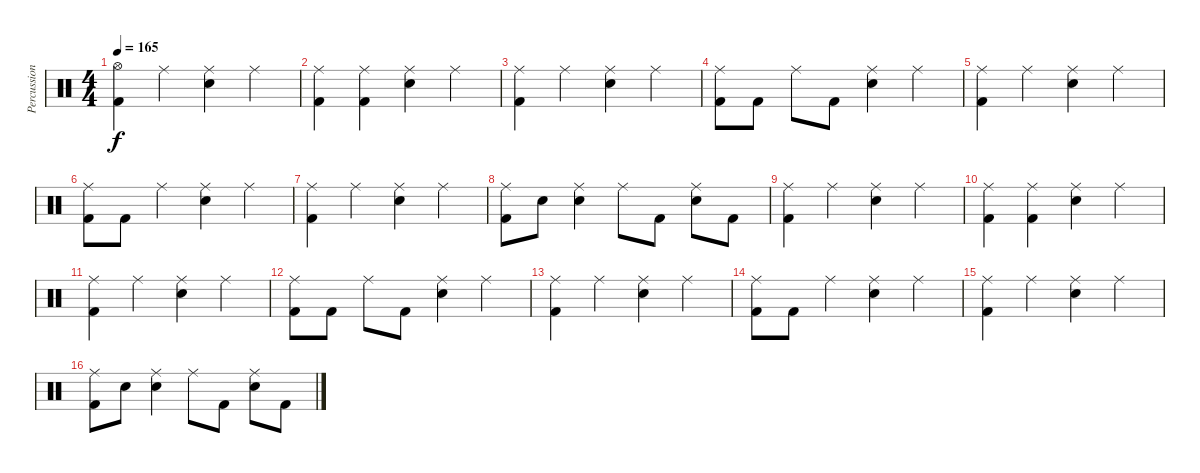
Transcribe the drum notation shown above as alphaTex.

\track ("Percussion" "Percussion") {instrument percussion}
\staff {score}
\articulation defaults
\ts (4 4)
\tempo 165
\clef neutral
\ks c
("Hi-Hat (open)" "Kick (hit) 2").4{dy f} "Ride (middle)".4 ("Ride (middle)" "Electric Snare (hit)").4 "Ride (middle)".4 |
("Ride (middle)" "Kick (hit) 2").4 ("Ride (middle)" "Kick (hit) 2").4 ("Ride (middle)" "Electric Snare (hit)").4 "Ride (middle)".4 |
("Ride (middle)" "Kick (hit) 2").4 "Ride (middle)".4 ("Ride (middle)" "Electric Snare (hit)").4 "Ride (middle)".4 |
("Ride (middle)" "Kick (hit) 2").8 "Kick (hit) 2".8 "Ride (middle)".8 "Kick (hit) 2".8 ("Ride (middle)" "Electric Snare (hit)").4 "Ride (middle)".4 |
("Ride (middle)" "Kick (hit) 2").4 "Ride (middle)".4 ("Ride (middle)" "Electric Snare (hit)").4 "Ride (middle)".4 |
("Ride (middle)" "Kick (hit) 2").8 "Kick (hit) 2".8 "Ride (middle)".4 ("Ride (middle)" "Electric Snare (hit)").4 "Ride (middle)".4 |
("Ride (middle)" "Kick (hit) 2").4 "Ride (middle)".4 ("Ride (middle)" "Electric Snare (hit)").4 "Ride (middle)".4 |
("Ride (middle)" "Kick (hit) 2").8 "Electric Snare (hit)".8 ("Ride (middle)" "Electric Snare (hit)").4 "Ride (middle)".8 "Kick (hit) 2".8 ("Ride (middle)" "Electric Snare (hit)").8 "Kick (hit) 2".8 |
("Ride (middle)" "Kick (hit) 2").4 "Ride (middle)".4 ("Ride (middle)" "Electric Snare (hit)").4 "Ride (middle)".4 |
("Ride (middle)" "Kick (hit) 2").4 ("Ride (middle)" "Kick (hit) 2").4 ("Ride (middle)" "Electric Snare (hit)").4 "Ride (middle)".4 |
("Ride (middle)" "Kick (hit) 2").4 "Ride (middle)".4 ("Ride (middle)" "Electric Snare (hit)").4 "Ride (middle)".4 |
("Ride (middle)" "Kick (hit) 2").8 "Kick (hit) 2".8 "Ride (middle)".8 "Kick (hit) 2".8 ("Ride (middle)" "Electric Snare (hit)").4 "Ride (middle)".4 |
("Ride (middle)" "Kick (hit) 2").4 "Ride (middle)".4 ("Ride (middle)" "Electric Snare (hit)").4 "Ride (middle)".4 |
("Ride (middle)" "Kick (hit) 2").8 "Kick (hit) 2".8 "Ride (middle)".4 ("Ride (middle)" "Electric Snare (hit)").4 "Ride (middle)".4 |
("Ride (middle)" "Kick (hit) 2").4 "Ride (middle)".4 ("Ride (middle)" "Electric Snare (hit)").4 "Ride (middle)".4 |
("Ride (middle)" "Kick (hit) 2").8 "Electric Snare (hit)".8 ("Ride (middle)" "Electric Snare (hit)").4 "Ride (middle)".8 "Kick (hit) 2".8 ("Ride (middle)" "Electric Snare (hit)").8 "Kick (hit) 2".8
